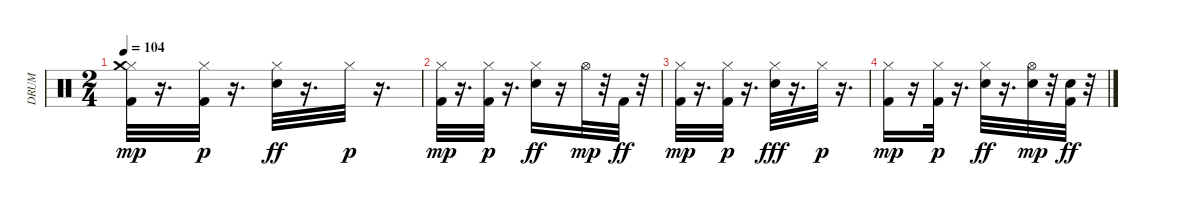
\track ("DRUM    " "DRUM    ") {instrument percussion}
\staff {score}
\articulation defaults
\ts (2 4)
\tempo 104
\clef neutral
\ks c
("Kick (hit) 2" "Hi-Hat (closed)" "Crash medium (hit)").32{dy mp} r.16{d} ("Kick (hit) 2" "Hi-Hat (closed)").32{dy p} r.16{d} ("Hi-Hat (closed)" "Snare (hit) 2").32{dy ff} r.16{d} "Hi-Hat (closed)".32{dy p} r.16{d} |
("Kick (hit) 2" "Hi-Hat (closed)").32{dy mp} r.16{d} ("Kick (hit) 2" "Hi-Hat (closed)").32{dy p} r.16{d} ("Hi-Hat (closed)" "Snare (hit) 2").16{dy ff} r.16 "Hi-Hat (open)".32{dy mp} r.32 "Kick (hit) 2".32{dy ff} r.32 |
("Kick (hit) 2" "Hi-Hat (closed)").32{dy mp} r.16{d} ("Kick (hit) 2" "Hi-Hat (closed)").32{dy p} r.16{d} ("Hi-Hat (closed)" "Snare (hit) 2").32{dy fff} r.16{d} "Hi-Hat (closed)".32{dy p} r.16{d} |
("Kick (hit) 2" "Hi-Hat (closed)").16{dy mp} r.16 ("Kick (hit) 2" "Hi-Hat (closed)").32{dy p} r.16{d} ("Hi-Hat (closed)" "Snare (hit) 2").32{dy ff} r.16{d} ("Hi-Hat (open)" "Snare (hit) 2").32{dy mp} r.32 ("Kick (hit) 2" "Snare (hit) 2").32{dy ff} r.32
